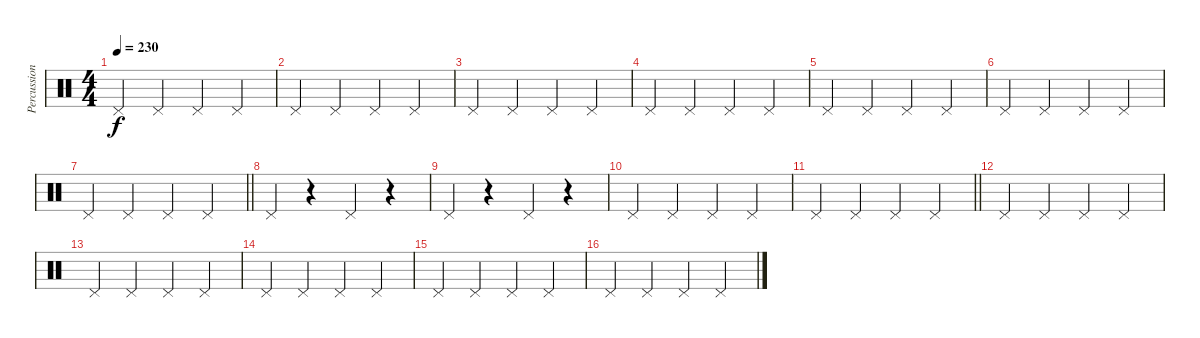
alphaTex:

\track ("Percussion" "Percussion") {instrument percussion}
\staff {score}
\articulation defaults
\ts (4 4)
\tempo 230
\clef neutral
\ks c "Pedal Hi-Hat (hit)".4{dy f} "Pedal Hi-Hat (hit)".4 "Pedal Hi-Hat (hit)".4 "Pedal Hi-Hat (hit)".4
|
"Pedal Hi-Hat (hit)".4 "Pedal Hi-Hat (hit)".4 "Pedal Hi-Hat (hit)".4 "Pedal Hi-Hat (hit)".4 |
"Pedal Hi-Hat (hit)".4 "Pedal Hi-Hat (hit)".4 "Pedal Hi-Hat (hit)".4 "Pedal Hi-Hat (hit)".4 |
"Pedal Hi-Hat (hit)".4 "Pedal Hi-Hat (hit)".4 "Pedal Hi-Hat (hit)".4 "Pedal Hi-Hat (hit)".4 |
"Pedal Hi-Hat (hit)".4 "Pedal Hi-Hat (hit)".4 "Pedal Hi-Hat (hit)".4 "Pedal Hi-Hat (hit)".4 |
"Pedal Hi-Hat (hit)".4 "Pedal Hi-Hat (hit)".4 "Pedal Hi-Hat (hit)".4 "Pedal Hi-Hat (hit)".4 |
\barLineRight lightlight "Pedal Hi-Hat (hit)".4 "Pedal Hi-Hat (hit)".4 "Pedal Hi-Hat (hit)".4 "Pedal Hi-Hat (hit)".4
|
\section ("" "")
"Pedal Hi-Hat (hit)".4 r.4 "Pedal Hi-Hat (hit)".4 r.4 |
"Pedal Hi-Hat (hit)".4 r.4 "Pedal Hi-Hat (hit)".4 r.4 |
"Pedal Hi-Hat (hit)".4 "Pedal Hi-Hat (hit)".4 "Pedal Hi-Hat (hit)".4 "Pedal Hi-Hat (hit)".4 |
\barLineRight lightlight "Pedal Hi-Hat (hit)".4 "Pedal Hi-Hat (hit)".4 "Pedal Hi-Hat (hit)".4 "Pedal Hi-Hat (hit)".4
|
\section ("" "")
"Pedal Hi-Hat (hit)".4 "Pedal Hi-Hat (hit)".4 "Pedal Hi-Hat (hit)".4 "Pedal Hi-Hat (hit)".4 |
"Pedal Hi-Hat (hit)".4 "Pedal Hi-Hat (hit)".4 "Pedal Hi-Hat (hit)".4 "Pedal Hi-Hat (hit)".4 |
"Pedal Hi-Hat (hit)".4 "Pedal Hi-Hat (hit)".4 "Pedal Hi-Hat (hit)".4 "Pedal Hi-Hat (hit)".4 |
"Pedal Hi-Hat (hit)".4 "Pedal Hi-Hat (hit)".4 "Pedal Hi-Hat (hit)".4 "Pedal Hi-Hat (hit)".4 |
"Pedal Hi-Hat (hit)".4 "Pedal Hi-Hat (hit)".4 "Pedal Hi-Hat (hit)".4 "Pedal Hi-Hat (hit)".4
